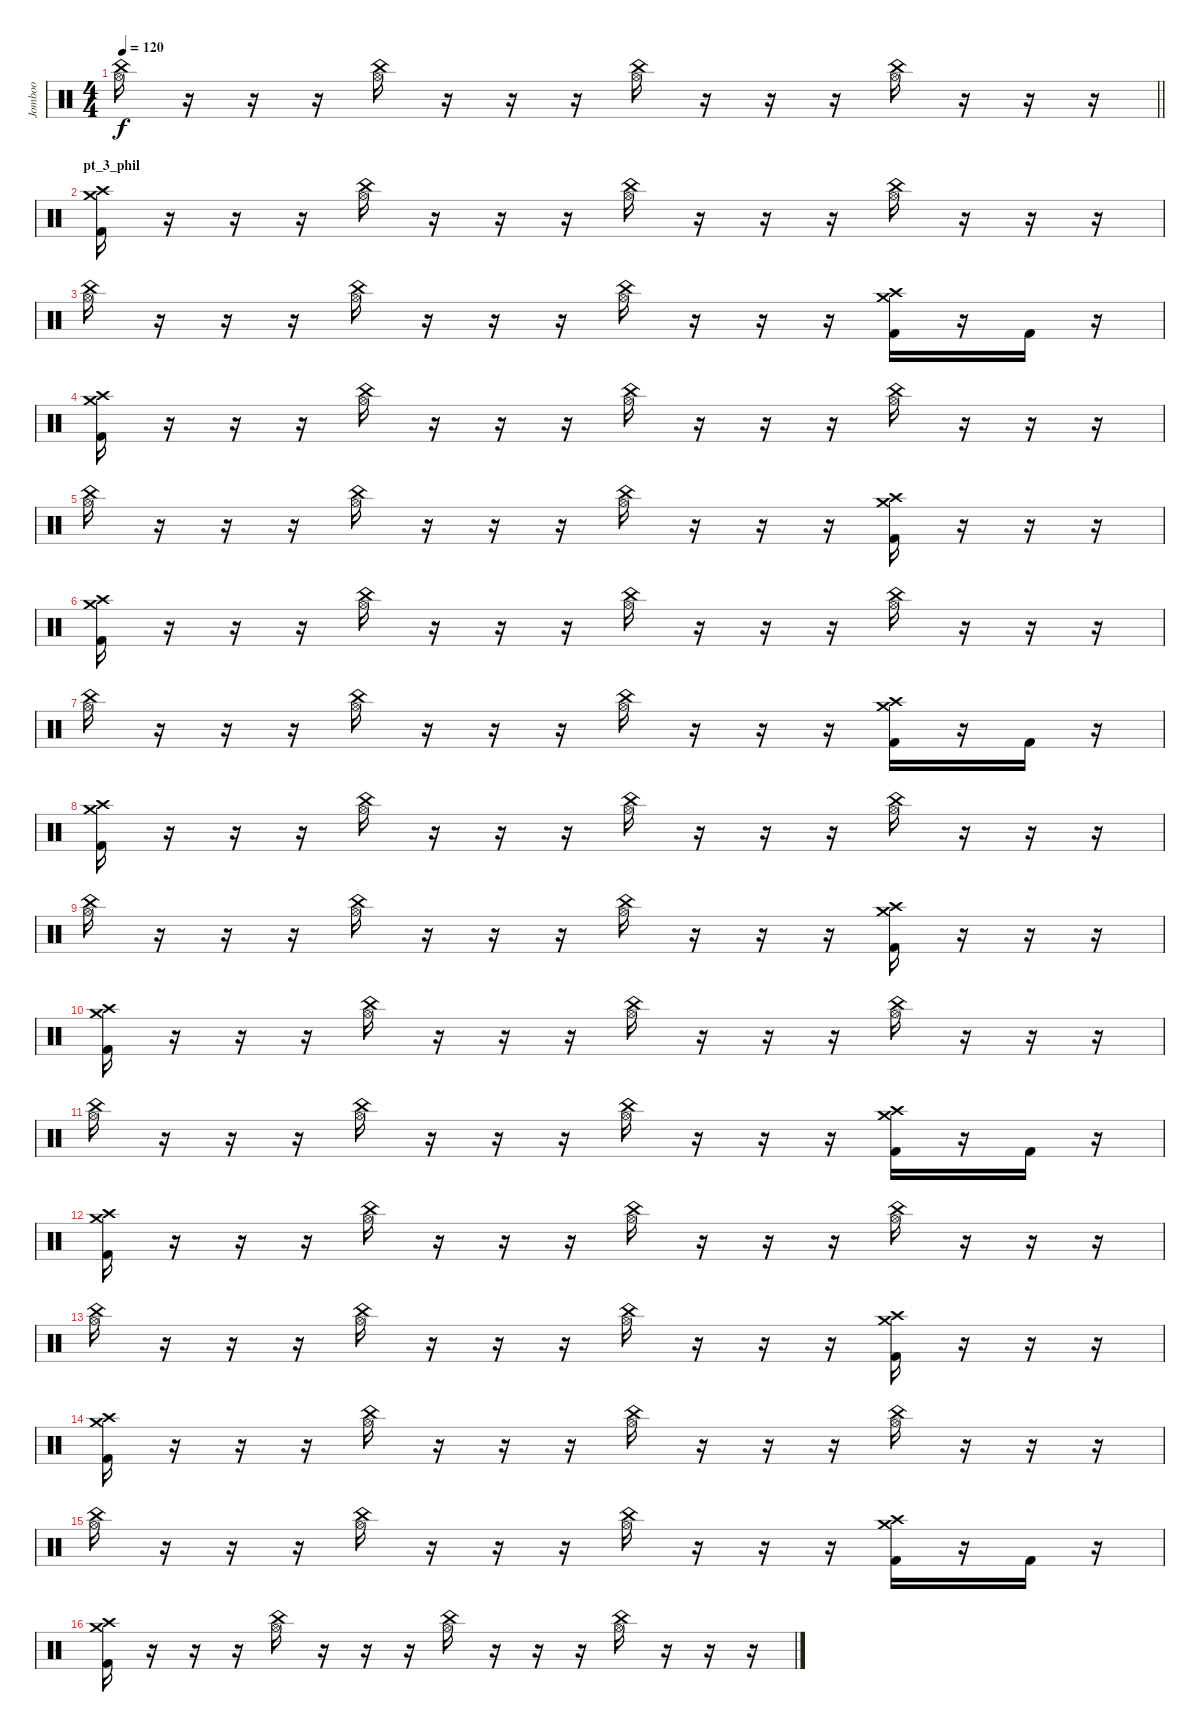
\track ("Jomboo" "Jomboo") {instrument percussion}
\staff
\articulation defaults
\ts (4 4)
\tempo 120
\clef neutral
\barLineRight lightlight
\ks c
("Hi-Hat (open)" "China (hit)").16{dy f} r.16 r.16 r.16 ("Hi-Hat (open)" "China (hit)").16 r.16 r.16 r.16 ("Hi-Hat (open)" "China (hit)").16 r.16 r.16 r.16 ("Hi-Hat (open)" "China (hit)").16 r.16 r.16 r.16 |
\section ("" "pt_3_phil")
("Kick (hit) 2" "Crash medium (hit)" "Crash high (hit)").16 r.16 r.16 r.16 ("Hi-Hat (open)" "China (hit)").16 r.16 r.16 r.16 ("Hi-Hat (open)" "China (hit)").16 r.16 r.16 r.16 ("Hi-Hat (open)" "China (hit)").16 r.16 r.16 r.16 |
("Hi-Hat (open)" "China (hit)").16 r.16 r.16 r.16 ("Hi-Hat (open)" "China (hit)").16 r.16 r.16 r.16 ("Hi-Hat (open)" "China (hit)").16 r.16 r.16 r.16 ("Crash medium (hit)" "Crash high (hit)" "Kick (hit) 2").16 r.16 "Kick (hit) 2".16 r.16 |
("Kick (hit) 2" "Crash medium (hit)" "Crash high (hit)").16 r.16 r.16 r.16 ("Hi-Hat (open)" "China (hit)").16 r.16 r.16 r.16 ("Hi-Hat (open)" "China (hit)").16 r.16 r.16 r.16 ("Hi-Hat (open)" "China (hit)").16 r.16 r.16 r.16 |
("Hi-Hat (open)" "China (hit)").16 r.16 r.16 r.16 ("Hi-Hat (open)" "China (hit)").16 r.16 r.16 r.16 ("Hi-Hat (open)" "China (hit)").16 r.16 r.16 r.16 ("Crash medium (hit)" "Crash high (hit)" "Kick (hit) 2").16 r.16 r.16 r.16 |
("Kick (hit) 2" "Crash medium (hit)" "Crash high (hit)").16 r.16 r.16 r.16 ("Hi-Hat (open)" "China (hit)").16 r.16 r.16 r.16 ("Hi-Hat (open)" "China (hit)").16 r.16 r.16 r.16 ("Hi-Hat (open)" "China (hit)").16 r.16 r.16 r.16 |
("Hi-Hat (open)" "China (hit)").16 r.16 r.16 r.16 ("Hi-Hat (open)" "China (hit)").16 r.16 r.16 r.16 ("Hi-Hat (open)" "China (hit)").16 r.16 r.16 r.16 ("Crash medium (hit)" "Crash high (hit)" "Kick (hit) 2").16 r.16 "Kick (hit) 2".16 r.16 |
("Kick (hit) 2" "Crash medium (hit)" "Crash high (hit)").16 r.16 r.16 r.16 ("Hi-Hat (open)" "China (hit)").16 r.16 r.16 r.16 ("Hi-Hat (open)" "China (hit)").16 r.16 r.16 r.16 ("Hi-Hat (open)" "China (hit)").16 r.16 r.16 r.16 |
("Hi-Hat (open)" "China (hit)").16 r.16 r.16 r.16 ("Hi-Hat (open)" "China (hit)").16 r.16 r.16 r.16 ("Hi-Hat (open)" "China (hit)").16 r.16 r.16 r.16 ("Crash medium (hit)" "Crash high (hit)" "Kick (hit) 2").16 r.16 r.16 r.16 |
("Kick (hit) 2" "Crash medium (hit)" "Crash high (hit)").16 r.16 r.16 r.16 ("Hi-Hat (open)" "China (hit)").16 r.16 r.16 r.16 ("Hi-Hat (open)" "China (hit)").16 r.16 r.16 r.16 ("Hi-Hat (open)" "China (hit)").16 r.16 r.16 r.16 |
("Hi-Hat (open)" "China (hit)").16 r.16 r.16 r.16 ("Hi-Hat (open)" "China (hit)").16 r.16 r.16 r.16 ("Hi-Hat (open)" "China (hit)").16 r.16 r.16 r.16 ("Crash medium (hit)" "Crash high (hit)" "Kick (hit) 2").16 r.16 "Kick (hit) 2".16 r.16 |
("Kick (hit) 2" "Crash medium (hit)" "Crash high (hit)").16 r.16 r.16 r.16 ("Hi-Hat (open)" "China (hit)").16 r.16 r.16 r.16 ("Hi-Hat (open)" "China (hit)").16 r.16 r.16 r.16 ("Hi-Hat (open)" "China (hit)").16 r.16 r.16 r.16 |
("Hi-Hat (open)" "China (hit)").16 r.16 r.16 r.16 ("Hi-Hat (open)" "China (hit)").16 r.16 r.16 r.16 ("Hi-Hat (open)" "China (hit)").16 r.16 r.16 r.16 ("Crash medium (hit)" "Crash high (hit)" "Kick (hit) 2").16 r.16 r.16 r.16 |
("Kick (hit) 2" "Crash medium (hit)" "Crash high (hit)").16 r.16 r.16 r.16 ("Hi-Hat (open)" "China (hit)").16 r.16 r.16 r.16 ("Hi-Hat (open)" "China (hit)").16 r.16 r.16 r.16 ("Hi-Hat (open)" "China (hit)").16 r.16 r.16 r.16 |
("Hi-Hat (open)" "China (hit)").16 r.16 r.16 r.16 ("Hi-Hat (open)" "China (hit)").16 r.16 r.16 r.16 ("Hi-Hat (open)" "China (hit)").16 r.16 r.16 r.16 ("Crash medium (hit)" "Crash high (hit)" "Kick (hit) 2").16 r.16 "Kick (hit) 2".16 r.16 |
("Kick (hit) 2" "Crash medium (hit)" "Crash high (hit)").16 r.16 r.16 r.16 ("Hi-Hat (open)" "China (hit)").16 r.16 r.16 r.16 ("Hi-Hat (open)" "China (hit)").16 r.16 r.16 r.16 ("Hi-Hat (open)" "China (hit)").16 r.16 r.16 r.16
